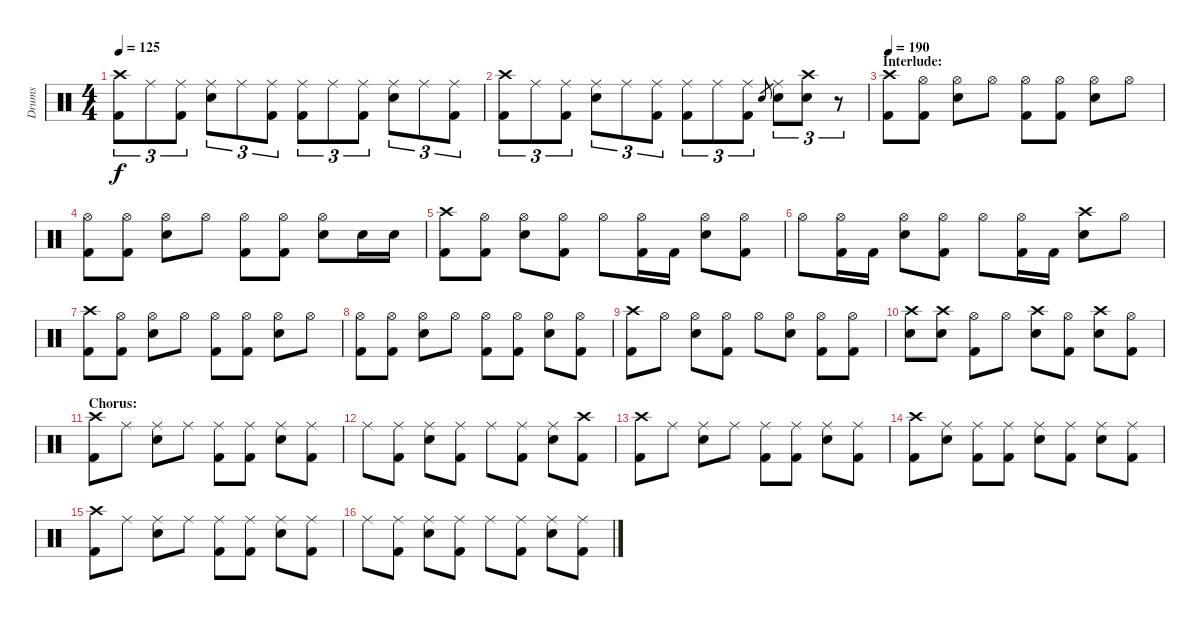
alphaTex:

\track ("Drums" "Drums") {instrument percussion}
\staff {score}
\articulation defaults
\ts (4 4)
\tempo 125
\clef neutral
\ks c
("Crash high (hit)" "Kick (hit) 2").8{tu (3 2) dy f} "Ride (middle)".8{tu (3 2)} ("Ride (middle)" "Kick (hit) 2").8{tu (3 2)} ("Ride (middle)" "Electric Snare (hit)").8{tu (3 2)} "Ride (middle)".8{tu (3 2)} ("Ride (middle)" "Kick (hit) 2").8{tu (3 2)} ("Ride (middle)" "Kick (hit) 2").8{tu (3 2)} "Ride (middle)".8{tu (3 2)} ("Ride (middle)" "Kick (hit) 2").8{tu (3 2)} ("Ride (middle)" "Electric Snare (hit)").8{tu (3 2)} "Ride (middle)".8{tu (3 2)} ("Ride (middle)" "Kick (hit) 2").8{tu (3 2)} |
("Crash high (hit)" "Kick (hit) 2").8{tu (3 2)} "Ride (middle)".8{tu (3 2)} ("Ride (middle)" "Kick (hit) 2").8{tu (3 2)} ("Ride (middle)" "Electric Snare (hit)").8{tu (3 2)} "Ride (middle)".8{tu (3 2)} ("Ride (middle)" "Kick (hit) 2").8{tu (3 2)} ("Ride (middle)" "Kick (hit) 2").8{tu (3 2)} "Ride (middle)".8{tu (3 2)} ("Ride (middle)" "Kick (hit) 2").8{tu (3 2)} "Electric Snare (hit)".8{gr} ("Ride (middle)" "Electric Snare (hit)").8{tu (3 2)} ("Crash high (hit)" "Electric Snare (hit)").8{tu (3 2)} r.8{tu (3 2)} |
\section ("" "Interlude:")
\tempo 190
("Crash high (hit)" "Kick (hit) 2").8 ("Hi-Hat (open)" "Kick (hit) 2").8 ("Hi-Hat (open)" "Electric Snare (hit)").8 "Hi-Hat (open)".8 ("Hi-Hat (open)" "Kick (hit) 2").8 ("Hi-Hat (open)" "Kick (hit) 2").8 ("Hi-Hat (open)" "Electric Snare (hit)").8 "Hi-Hat (open)".8 |
("Hi-Hat (open)" "Kick (hit) 2").8 ("Hi-Hat (open)" "Kick (hit) 2").8 ("Hi-Hat (open)" "Electric Snare (hit)").8 "Hi-Hat (open)".8 ("Hi-Hat (open)" "Kick (hit) 2").8 ("Hi-Hat (open)" "Kick (hit) 2").8 ("Hi-Hat (open)" "Electric Snare (hit)").8 "Electric Snare (hit)".16 "Electric Snare (hit)".16 |
("Crash high (hit)" "Kick (hit) 2").8 ("Hi-Hat (open)" "Kick (hit) 2").8 ("Hi-Hat (open)" "Electric Snare (hit)").8 ("Hi-Hat (open)" "Kick (hit) 2").8 "Hi-Hat (open)".8 ("Hi-Hat (open)" "Kick (hit) 2").16 "Kick (hit) 2".16 ("Hi-Hat (open)" "Electric Snare (hit)").8 ("Hi-Hat (open)" "Kick (hit) 2").8 |
"Hi-Hat (open)".8 ("Hi-Hat (open)" "Kick (hit) 2").16 "Kick (hit) 2".16 ("Hi-Hat (open)" "Electric Snare (hit)").8 ("Hi-Hat (open)" "Kick (hit) 2").8 "Hi-Hat (open)".8 ("Hi-Hat (open)" "Kick (hit) 2").16 "Kick (hit) 2".16 ("Crash high (hit)" "Electric Snare (hit)").8 "Hi-Hat (open)".8 |
("Crash high (hit)" "Kick (hit) 2").8 ("Hi-Hat (open)" "Kick (hit) 2").8 ("Hi-Hat (open)" "Electric Snare (hit)").8 "Hi-Hat (open)".8 ("Hi-Hat (open)" "Kick (hit) 2").8 ("Hi-Hat (open)" "Kick (hit) 2").8 ("Hi-Hat (open)" "Electric Snare (hit)").8 "Hi-Hat (open)".8 |
("Hi-Hat (open)" "Kick (hit) 2").8 ("Hi-Hat (open)" "Kick (hit) 2").8 ("Hi-Hat (open)" "Electric Snare (hit)").8 "Hi-Hat (open)".8 ("Hi-Hat (open)" "Kick (hit) 2").8 ("Hi-Hat (open)" "Kick (hit) 2").8 ("Hi-Hat (open)" "Electric Snare (hit)").8 ("Hi-Hat (open)" "Kick (hit) 2").8 |
("Crash high (hit)" "Kick (hit) 2").8 "Hi-Hat (open)".8 ("Hi-Hat (open)" "Electric Snare (hit)").8 ("Hi-Hat (open)" "Kick (hit) 2").8 "Hi-Hat (open)".8 ("Hi-Hat (open)" "Electric Snare (hit)").8 ("Hi-Hat (open)" "Kick (hit) 2").8 ("Hi-Hat (open)" "Kick (hit) 2").8 |
("Crash high (hit)" "Electric Snare (hit)").8 ("Crash high (hit)" "Electric Snare (hit)").8 ("Hi-Hat (open)" "Kick (hit) 2").8 "Hi-Hat (open)".8 ("Crash high (hit)" "Electric Snare (hit)").8 ("Hi-Hat (open)" "Kick (hit) 2").8 ("Crash high (hit)" "Electric Snare (hit)").8 ("Hi-Hat (open)" "Kick (hit) 2").8 |
\section ("" "Chorus:")
("Crash high (hit)" "Kick (hit) 2").8 "Ride (middle)".8 ("Ride (middle)" "Electric Snare (hit)").8 "Ride (middle)".8 ("Ride (middle)" "Kick (hit) 2").8 ("Ride (middle)" "Kick (hit) 2").8 ("Ride (middle)" "Electric Snare (hit)").8 ("Ride (middle)" "Kick (hit) 2").8 |
"Ride (middle)".8 ("Ride (middle)" "Kick (hit) 2").8 ("Ride (middle)" "Electric Snare (hit)").8 ("Ride (middle)" "Kick (hit) 2").8 "Ride (middle)".8 ("Ride (middle)" "Kick (hit) 2").8 ("Ride (middle)" "Electric Snare (hit)").8 ("Crash high (hit)" "Kick (hit) 2").8 |
("Crash high (hit)" "Kick (hit) 2").8 "Ride (middle)".8 ("Ride (middle)" "Electric Snare (hit)").8 "Ride (middle)".8 ("Ride (middle)" "Kick (hit) 2").8 ("Ride (middle)" "Kick (hit) 2").8 ("Ride (middle)" "Electric Snare (hit)").8 ("Ride (middle)" "Kick (hit) 2").8 |
("Crash high (hit)" "Kick (hit) 2").8 ("Ride (middle)" "Electric Snare (hit)").8 ("Ride (middle)" "Kick (hit) 2").8 ("Ride (middle)" "Kick (hit) 2").8 ("Ride (middle)" "Electric Snare (hit)").8 ("Ride (middle)" "Kick (hit) 2").8 ("Ride (middle)" "Electric Snare (hit)").8 ("Ride (middle)" "Kick (hit) 2").8 |
("Crash high (hit)" "Kick (hit) 2").8 "Ride (middle)".8 ("Ride (middle)" "Electric Snare (hit)").8 "Ride (middle)".8 ("Ride (middle)" "Kick (hit) 2").8 ("Ride (middle)" "Kick (hit) 2").8 ("Ride (middle)" "Electric Snare (hit)").8 ("Ride (middle)" "Kick (hit) 2").8 |
"Ride (middle)".8 ("Ride (middle)" "Kick (hit) 2").8 ("Ride (middle)" "Electric Snare (hit)").8 ("Ride (middle)" "Kick (hit) 2").8 "Ride (middle)".8 ("Ride (middle)" "Kick (hit) 2").8 ("Ride (middle)" "Electric Snare (hit)").8 ("Ride (middle)" "Kick (hit) 2").8
